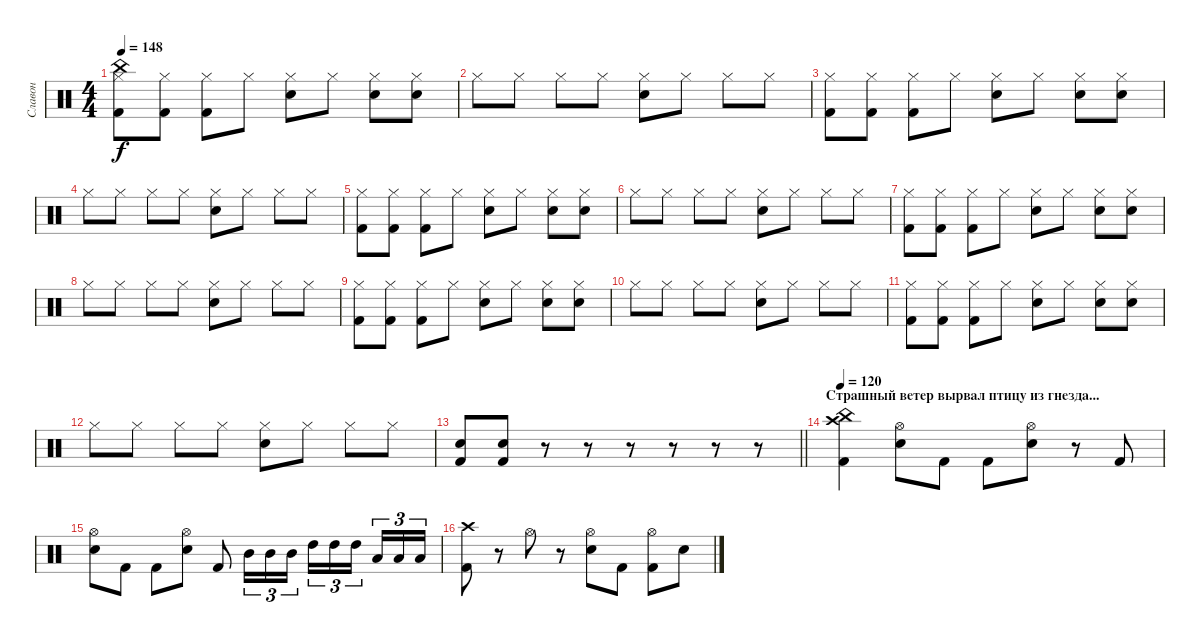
\track ("Славон" "Славон") {instrument percussion}
\staff {score}
\articulation defaults
\ts (4 4)
\tempo 148
\clef neutral
\ks c
("Hi-Hat (closed)" "Kick (hit) 2" "China (hit)").8{dy f} ("Hi-Hat (closed)" "Kick (hit) 2").8 ("Hi-Hat (closed)" "Kick (hit) 2").8 "Hi-Hat (closed)".8 ("Hi-Hat (closed)" "Electric Snare (hit)").8 "Hi-Hat (closed)".8 ("Hi-Hat (closed)" "Electric Snare (hit)").8 ("Hi-Hat (closed)" "Electric Snare (hit)").8 |
"Hi-Hat (closed)".8 "Hi-Hat (closed)".8 "Hi-Hat (closed)".8 "Hi-Hat (closed)".8 ("Hi-Hat (closed)" "Electric Snare (hit)").8 "Hi-Hat (closed)".8 "Hi-Hat (closed)".8 "Hi-Hat (closed)".8 |
("Hi-Hat (closed)" "Kick (hit) 2").8 ("Hi-Hat (closed)" "Kick (hit) 2").8 ("Hi-Hat (closed)" "Kick (hit) 2").8 "Hi-Hat (closed)".8 ("Hi-Hat (closed)" "Electric Snare (hit)").8 "Hi-Hat (closed)".8 ("Hi-Hat (closed)" "Electric Snare (hit)").8 ("Hi-Hat (closed)" "Electric Snare (hit)").8 |
"Hi-Hat (closed)".8 "Hi-Hat (closed)".8 "Hi-Hat (closed)".8 "Hi-Hat (closed)".8 ("Hi-Hat (closed)" "Electric Snare (hit)").8 "Hi-Hat (closed)".8 "Hi-Hat (closed)".8 "Hi-Hat (closed)".8 |
("Hi-Hat (closed)" "Kick (hit) 2").8 ("Hi-Hat (closed)" "Kick (hit) 2").8 ("Hi-Hat (closed)" "Kick (hit) 2").8 "Hi-Hat (closed)".8 ("Hi-Hat (closed)" "Electric Snare (hit)").8 "Hi-Hat (closed)".8 ("Hi-Hat (closed)" "Electric Snare (hit)").8 ("Hi-Hat (closed)" "Electric Snare (hit)").8 |
"Hi-Hat (closed)".8 "Hi-Hat (closed)".8 "Hi-Hat (closed)".8 "Hi-Hat (closed)".8 ("Hi-Hat (closed)" "Electric Snare (hit)").8 "Hi-Hat (closed)".8 "Hi-Hat (closed)".8 "Hi-Hat (closed)".8 |
("Hi-Hat (closed)" "Kick (hit) 2").8 ("Hi-Hat (closed)" "Kick (hit) 2").8 ("Hi-Hat (closed)" "Kick (hit) 2").8 "Hi-Hat (closed)".8 ("Hi-Hat (closed)" "Electric Snare (hit)").8 "Hi-Hat (closed)".8 ("Hi-Hat (closed)" "Electric Snare (hit)").8 ("Hi-Hat (closed)" "Electric Snare (hit)").8 |
"Hi-Hat (closed)".8 "Hi-Hat (closed)".8 "Hi-Hat (closed)".8 "Hi-Hat (closed)".8 ("Hi-Hat (closed)" "Electric Snare (hit)").8 "Hi-Hat (closed)".8 "Hi-Hat (closed)".8 "Hi-Hat (closed)".8 |
("Hi-Hat (closed)" "Kick (hit) 2").8 ("Hi-Hat (closed)" "Kick (hit) 2").8 ("Hi-Hat (closed)" "Kick (hit) 2").8 "Hi-Hat (closed)".8 ("Hi-Hat (closed)" "Electric Snare (hit)").8 "Hi-Hat (closed)".8 ("Hi-Hat (closed)" "Electric Snare (hit)").8 ("Hi-Hat (closed)" "Electric Snare (hit)").8 |
"Hi-Hat (closed)".8 "Hi-Hat (closed)".8 "Hi-Hat (closed)".8 "Hi-Hat (closed)".8 ("Hi-Hat (closed)" "Electric Snare (hit)").8 "Hi-Hat (closed)".8 "Hi-Hat (closed)".8 "Hi-Hat (closed)".8 |
("Hi-Hat (closed)" "Kick (hit) 2").8 ("Hi-Hat (closed)" "Kick (hit) 2").8 ("Hi-Hat (closed)" "Kick (hit) 2").8 "Hi-Hat (closed)".8 ("Hi-Hat (closed)" "Electric Snare (hit)").8 "Hi-Hat (closed)".8 ("Hi-Hat (closed)" "Electric Snare (hit)").8 ("Hi-Hat (closed)" "Electric Snare (hit)").8 |
"Hi-Hat (closed)".8 "Hi-Hat (closed)".8 "Hi-Hat (closed)".8 "Hi-Hat (closed)".8 ("Hi-Hat (closed)" "Electric Snare (hit)").8 "Hi-Hat (closed)".8 "Hi-Hat (closed)".8 "Hi-Hat (closed)".8 |
\barLineRight lightlight
("Electric Snare (hit)" "Kick (hit) 2").8 ("Electric Snare (hit)" "Kick (hit) 2").8 r.8 r.8 r.8 r.8 r.8 r.8 |
\section ("" "Страшный ветер вырвал птицу из гнезда...")
\tempo 120
("Crash high (hit)" "Kick (hit) 2" "China (hit)").4 ("Hi-Hat (open)" "Electric Snare (hit)").8 "Kick (hit) 2".8 "Kick (hit) 2".8 ("Hi-Hat (open)" "Electric Snare (hit)").8 r.8 "Kick (hit) 2".8 |
("Hi-Hat (open)" "Electric Snare (hit)").8 "Kick (hit) 2".8 "Kick (hit) 2".8 ("Hi-Hat (open)" "Electric Snare (hit)").8 "Kick (hit) 2".8 "Mid Tom (hit)".16{tu (3 2)} "Mid Tom (hit)".16{tu (3 2)} "Mid Tom (hit)".16{tu (3 2)} "High Tom (hit)".16{tu (3 2)} "High Tom (hit)".16{tu (3 2)} "High Tom (hit)".16{tu (3 2) beam splitsecondary} "Low Tom (hit)".16{tu (3 2)} "Low Tom (hit)".16{tu (3 2)} "Low Tom (hit)".16{tu (3 2)} |
("Crash high (hit)" "Kick (hit) 2").8 r.8 "Hi-Hat (open)".8 r.8 ("Hi-Hat (open)" "Electric Snare (hit)").8 "Kick (hit) 2".8 ("Hi-Hat (open)" "Kick (hit) 2").8 "Electric Snare (hit)".8
